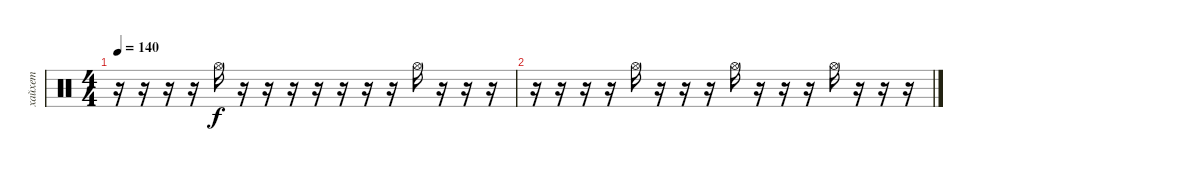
\track ("хайхет" "хайхет") {mute instrument percussion}
\staff {score}
\articulation defaults
\ts (4 4)
\tempo 140
\clef neutral
\ks c
r.16{dy f} r.16 r.16 r.16 "Hi-Hat (open)".16 r.16 r.16 r.16 r.16 r.16 r.16 r.16 "Hi-Hat (open)".16 r.16 r.16 r.16 |
r.16 r.16 r.16 r.16 "Hi-Hat (open)".16 r.16 r.16 r.16 "Hi-Hat (open)".16 r.16 r.16 r.16 "Hi-Hat (open)".16 r.16 r.16 r.16
